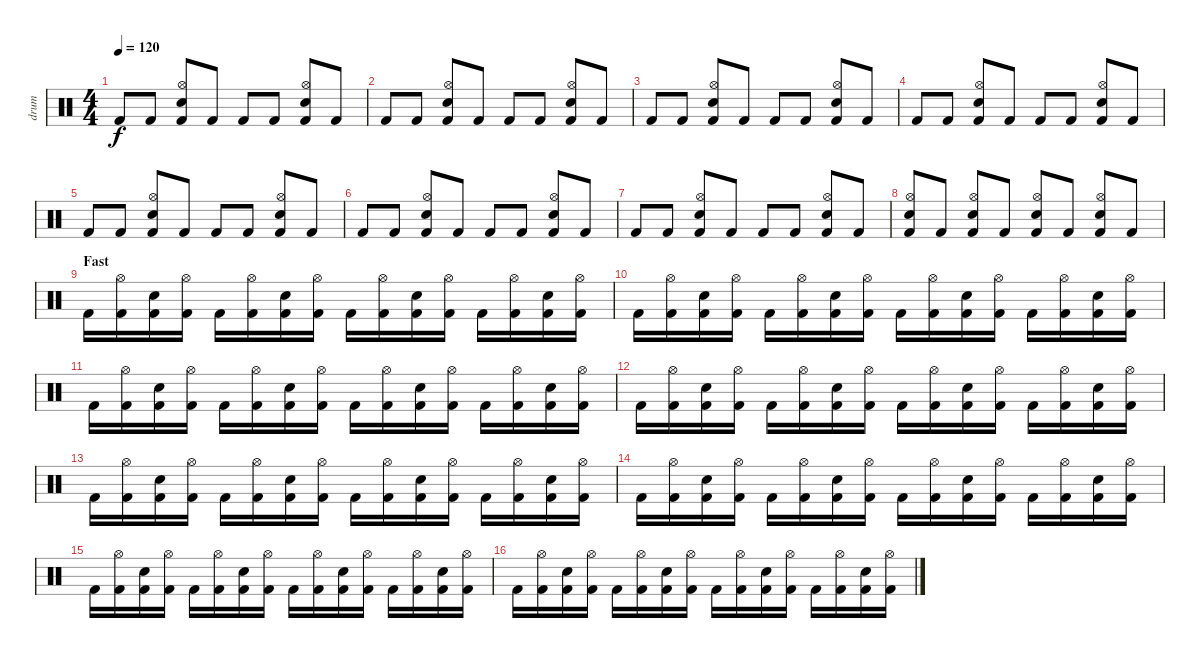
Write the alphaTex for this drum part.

\track ("drum" "drum") {instrument percussion}
\staff {score}
\articulation defaults
\ts (4 4)
\tempo 120
\clef neutral
\ks c "Kick (hit) 2".8{dy f} "Kick (hit) 2".8
("Hi-Hat (open)" "Snare (hit) 2" "Kick (hit) 2").8 "Kick (hit) 2".8 "Kick (hit) 2".8 "Kick (hit) 2".8 ("Hi-Hat (open)" "Snare (hit) 2" "Kick (hit) 2").8 "Kick (hit) 2".8 |
"Kick (hit) 2".8 "Kick (hit) 2".8 ("Hi-Hat (open)" "Snare (hit) 2" "Kick (hit) 2").8 "Kick (hit) 2".8 "Kick (hit) 2".8 "Kick (hit) 2".8 ("Hi-Hat (open)" "Snare (hit) 2" "Kick (hit) 2").8 "Kick (hit) 2".8 |
"Kick (hit) 2".8 "Kick (hit) 2".8 ("Hi-Hat (open)" "Snare (hit) 2" "Kick (hit) 2").8 "Kick (hit) 2".8 "Kick (hit) 2".8 "Kick (hit) 2".8 ("Hi-Hat (open)" "Snare (hit) 2" "Kick (hit) 2").8 "Kick (hit) 2".8 |
"Kick (hit) 2".8 "Kick (hit) 2".8 ("Hi-Hat (open)" "Snare (hit) 2" "Kick (hit) 2").8 "Kick (hit) 2".8 "Kick (hit) 2".8 "Kick (hit) 2".8 ("Hi-Hat (open)" "Snare (hit) 2" "Kick (hit) 2").8 "Kick (hit) 2".8 |
"Kick (hit) 2".8 "Kick (hit) 2".8 ("Hi-Hat (open)" "Snare (hit) 2" "Kick (hit) 2").8 "Kick (hit) 2".8 "Kick (hit) 2".8 "Kick (hit) 2".8 ("Hi-Hat (open)" "Snare (hit) 2" "Kick (hit) 2").8 "Kick (hit) 2".8 |
"Kick (hit) 2".8 "Kick (hit) 2".8 ("Hi-Hat (open)" "Snare (hit) 2" "Kick (hit) 2").8 "Kick (hit) 2".8 "Kick (hit) 2".8 "Kick (hit) 2".8 ("Hi-Hat (open)" "Snare (hit) 2" "Kick (hit) 2").8 "Kick (hit) 2".8 |
"Kick (hit) 2".8 "Kick (hit) 2".8 ("Hi-Hat (open)" "Snare (hit) 2" "Kick (hit) 2").8 "Kick (hit) 2".8 "Kick (hit) 2".8 "Kick (hit) 2".8 ("Hi-Hat (open)" "Snare (hit) 2" "Kick (hit) 2").8 "Kick (hit) 2".8 |
("Hi-Hat (open)" "Snare (hit) 2" "Kick (hit) 2").8 "Kick (hit) 2".8 ("Hi-Hat (open)" "Snare (hit) 2" "Kick (hit) 2").8 "Kick (hit) 2".8 ("Hi-Hat (open)" "Snare (hit) 2" "Kick (hit) 2").8 "Kick (hit) 2".8 ("Hi-Hat (open)" "Snare (hit) 2" "Kick (hit) 2").8 "Kick (hit) 2".8 |
\section ("" "Fast")
"Kick (hit) 2".16 ("Hi-Hat (open)" "Kick (hit) 2").16 ("Snare (hit) 2" "Kick (hit) 2").16 ("Hi-Hat (open)" "Kick (hit) 2").16 "Kick (hit) 2".16 ("Hi-Hat (open)" "Kick (hit) 2").16 ("Snare (hit) 2" "Kick (hit) 2").16 ("Hi-Hat (open)" "Kick (hit) 2").16 "Kick (hit) 2".16 ("Hi-Hat (open)" "Kick (hit) 2").16 ("Snare (hit) 2" "Kick (hit) 2").16 ("Hi-Hat (open)" "Kick (hit) 2").16 "Kick (hit) 2".16 ("Hi-Hat (open)" "Kick (hit) 2").16 ("Snare (hit) 2" "Kick (hit) 2").16 ("Hi-Hat (open)" "Kick (hit) 2").16 |
"Kick (hit) 2".16 ("Hi-Hat (open)" "Kick (hit) 2").16 ("Snare (hit) 2" "Kick (hit) 2").16 ("Hi-Hat (open)" "Kick (hit) 2").16 "Kick (hit) 2".16 ("Hi-Hat (open)" "Kick (hit) 2").16 ("Snare (hit) 2" "Kick (hit) 2").16 ("Hi-Hat (open)" "Kick (hit) 2").16 "Kick (hit) 2".16 ("Hi-Hat (open)" "Kick (hit) 2").16 ("Snare (hit) 2" "Kick (hit) 2").16 ("Hi-Hat (open)" "Kick (hit) 2").16 "Kick (hit) 2".16 ("Hi-Hat (open)" "Kick (hit) 2").16 ("Snare (hit) 2" "Kick (hit) 2").16 ("Hi-Hat (open)" "Kick (hit) 2").16 |
"Kick (hit) 2".16 ("Hi-Hat (open)" "Kick (hit) 2").16 ("Snare (hit) 2" "Kick (hit) 2").16 ("Hi-Hat (open)" "Kick (hit) 2").16 "Kick (hit) 2".16 ("Hi-Hat (open)" "Kick (hit) 2").16 ("Snare (hit) 2" "Kick (hit) 2").16 ("Hi-Hat (open)" "Kick (hit) 2").16 "Kick (hit) 2".16 ("Hi-Hat (open)" "Kick (hit) 2").16 ("Snare (hit) 2" "Kick (hit) 2").16 ("Hi-Hat (open)" "Kick (hit) 2").16 "Kick (hit) 2".16 ("Hi-Hat (open)" "Kick (hit) 2").16 ("Snare (hit) 2" "Kick (hit) 2").16 ("Hi-Hat (open)" "Kick (hit) 2").16 |
"Kick (hit) 2".16 ("Hi-Hat (open)" "Kick (hit) 2").16 ("Snare (hit) 2" "Kick (hit) 2").16 ("Hi-Hat (open)" "Kick (hit) 2").16 "Kick (hit) 2".16 ("Hi-Hat (open)" "Kick (hit) 2").16 ("Snare (hit) 2" "Kick (hit) 2").16 ("Hi-Hat (open)" "Kick (hit) 2").16 "Kick (hit) 2".16 ("Hi-Hat (open)" "Kick (hit) 2").16 ("Snare (hit) 2" "Kick (hit) 2").16 ("Hi-Hat (open)" "Kick (hit) 2").16 "Kick (hit) 2".16 ("Hi-Hat (open)" "Kick (hit) 2").16 ("Snare (hit) 2" "Kick (hit) 2").16 ("Hi-Hat (open)" "Kick (hit) 2").16 |
"Kick (hit) 2".16 ("Hi-Hat (open)" "Kick (hit) 2").16 ("Snare (hit) 2" "Kick (hit) 2").16 ("Hi-Hat (open)" "Kick (hit) 2").16 "Kick (hit) 2".16 ("Hi-Hat (open)" "Kick (hit) 2").16 ("Snare (hit) 2" "Kick (hit) 2").16 ("Hi-Hat (open)" "Kick (hit) 2").16 "Kick (hit) 2".16 ("Hi-Hat (open)" "Kick (hit) 2").16 ("Snare (hit) 2" "Kick (hit) 2").16 ("Hi-Hat (open)" "Kick (hit) 2").16 "Kick (hit) 2".16 ("Hi-Hat (open)" "Kick (hit) 2").16 ("Snare (hit) 2" "Kick (hit) 2").16 ("Hi-Hat (open)" "Kick (hit) 2").16 |
"Kick (hit) 2".16 ("Hi-Hat (open)" "Kick (hit) 2").16 ("Snare (hit) 2" "Kick (hit) 2").16 ("Hi-Hat (open)" "Kick (hit) 2").16 "Kick (hit) 2".16 ("Hi-Hat (open)" "Kick (hit) 2").16 ("Snare (hit) 2" "Kick (hit) 2").16 ("Hi-Hat (open)" "Kick (hit) 2").16 "Kick (hit) 2".16 ("Hi-Hat (open)" "Kick (hit) 2").16 ("Snare (hit) 2" "Kick (hit) 2").16 ("Hi-Hat (open)" "Kick (hit) 2").16 "Kick (hit) 2".16 ("Hi-Hat (open)" "Kick (hit) 2").16 ("Snare (hit) 2" "Kick (hit) 2").16 ("Hi-Hat (open)" "Kick (hit) 2").16 |
"Kick (hit) 2".16 ("Hi-Hat (open)" "Kick (hit) 2").16 ("Snare (hit) 2" "Kick (hit) 2").16 ("Hi-Hat (open)" "Kick (hit) 2").16 "Kick (hit) 2".16 ("Hi-Hat (open)" "Kick (hit) 2").16 ("Snare (hit) 2" "Kick (hit) 2").16 ("Hi-Hat (open)" "Kick (hit) 2").16 "Kick (hit) 2".16 ("Hi-Hat (open)" "Kick (hit) 2").16 ("Snare (hit) 2" "Kick (hit) 2").16 ("Hi-Hat (open)" "Kick (hit) 2").16 "Kick (hit) 2".16 ("Hi-Hat (open)" "Kick (hit) 2").16 ("Snare (hit) 2" "Kick (hit) 2").16 ("Hi-Hat (open)" "Kick (hit) 2").16 |
"Kick (hit) 2".16 ("Hi-Hat (open)" "Kick (hit) 2").16 ("Snare (hit) 2" "Kick (hit) 2").16 ("Hi-Hat (open)" "Kick (hit) 2").16 "Kick (hit) 2".16 ("Hi-Hat (open)" "Kick (hit) 2").16 ("Snare (hit) 2" "Kick (hit) 2").16 ("Hi-Hat (open)" "Kick (hit) 2").16 "Kick (hit) 2".16 ("Hi-Hat (open)" "Kick (hit) 2").16 ("Snare (hit) 2" "Kick (hit) 2").16 ("Hi-Hat (open)" "Kick (hit) 2").16 "Kick (hit) 2".16 ("Hi-Hat (open)" "Kick (hit) 2").16 ("Snare (hit) 2" "Kick (hit) 2").16 ("Hi-Hat (open)" "Kick (hit) 2").16
